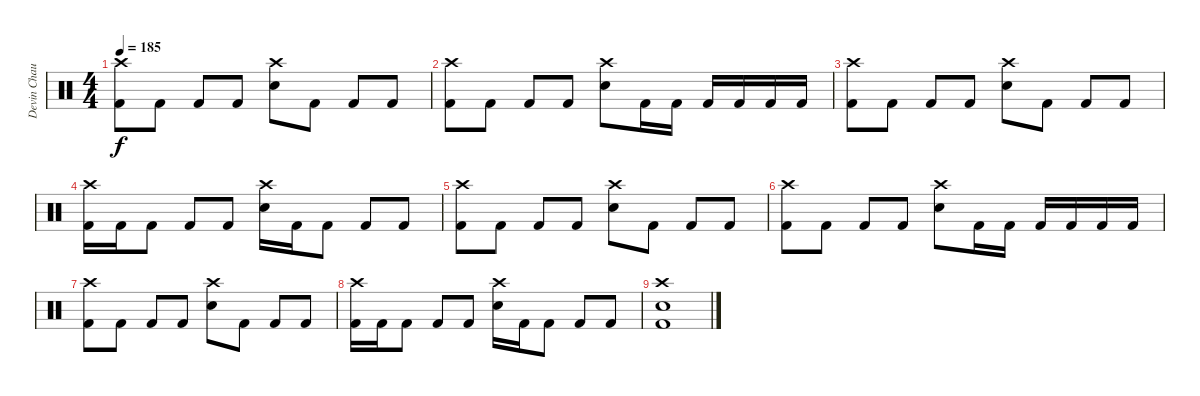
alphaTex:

\track ("Devin Chaulk" "Devin Chau") {instrument percussion}
\staff {score}
\articulation defaults
\ts (4 4)
\tempo 185
\clef neutral
\ks c
("Crash high (hit)" "Kick (hit) 2").8{dy f} "Kick (hit) 2".8 "Kick (hit) 2".8 "Kick (hit) 2".8 ("Crash high (hit)" "Snare (hit) 2").8 "Kick (hit) 2".8 "Kick (hit) 2".8 "Kick (hit) 2".8 |
("Crash high (hit)" "Kick (hit) 2").8 "Kick (hit) 2".8 "Kick (hit) 2".8 "Kick (hit) 2".8 ("Crash high (hit)" "Snare (hit) 2").8 "Kick (hit) 2".16 "Kick (hit) 2".16 "Kick (hit) 2".16 "Kick (hit) 2".16 "Kick (hit) 2".16 "Kick (hit) 2".16 |
("Crash high (hit)" "Kick (hit) 2").8 "Kick (hit) 2".8 "Kick (hit) 2".8 "Kick (hit) 2".8 ("Crash high (hit)" "Snare (hit) 2").8 "Kick (hit) 2".8 "Kick (hit) 2".8 "Kick (hit) 2".8 |
("Crash high (hit)" "Kick (hit) 2").16 "Kick (hit) 2".16 "Kick (hit) 2".8 "Kick (hit) 2".8 "Kick (hit) 2".8 ("Crash high (hit)" "Snare (hit) 2").16 "Kick (hit) 2".16 "Kick (hit) 2".8 "Kick (hit) 2".8 "Kick (hit) 2".8 |
("Crash high (hit)" "Kick (hit) 2").8 "Kick (hit) 2".8 "Kick (hit) 2".8 "Kick (hit) 2".8 ("Crash high (hit)" "Snare (hit) 2").8 "Kick (hit) 2".8 "Kick (hit) 2".8 "Kick (hit) 2".8 |
("Crash high (hit)" "Kick (hit) 2").8 "Kick (hit) 2".8 "Kick (hit) 2".8 "Kick (hit) 2".8 ("Crash high (hit)" "Snare (hit) 2").8 "Kick (hit) 2".16 "Kick (hit) 2".16 "Kick (hit) 2".16 "Kick (hit) 2".16 "Kick (hit) 2".16 "Kick (hit) 2".16 |
("Crash high (hit)" "Kick (hit) 2").8 "Kick (hit) 2".8 "Kick (hit) 2".8 "Kick (hit) 2".8 ("Crash high (hit)" "Snare (hit) 2").8 "Kick (hit) 2".8 "Kick (hit) 2".8 "Kick (hit) 2".8 |
("Crash high (hit)" "Kick (hit) 2").16 "Kick (hit) 2".16 "Kick (hit) 2".8 "Kick (hit) 2".8 "Kick (hit) 2".8 ("Crash high (hit)" "Snare (hit) 2").16 "Kick (hit) 2".16 "Kick (hit) 2".8 "Kick (hit) 2".8 "Kick (hit) 2".8 |
("Crash high (hit)" "Snare (hit) 2" "Kick (hit) 2").1
